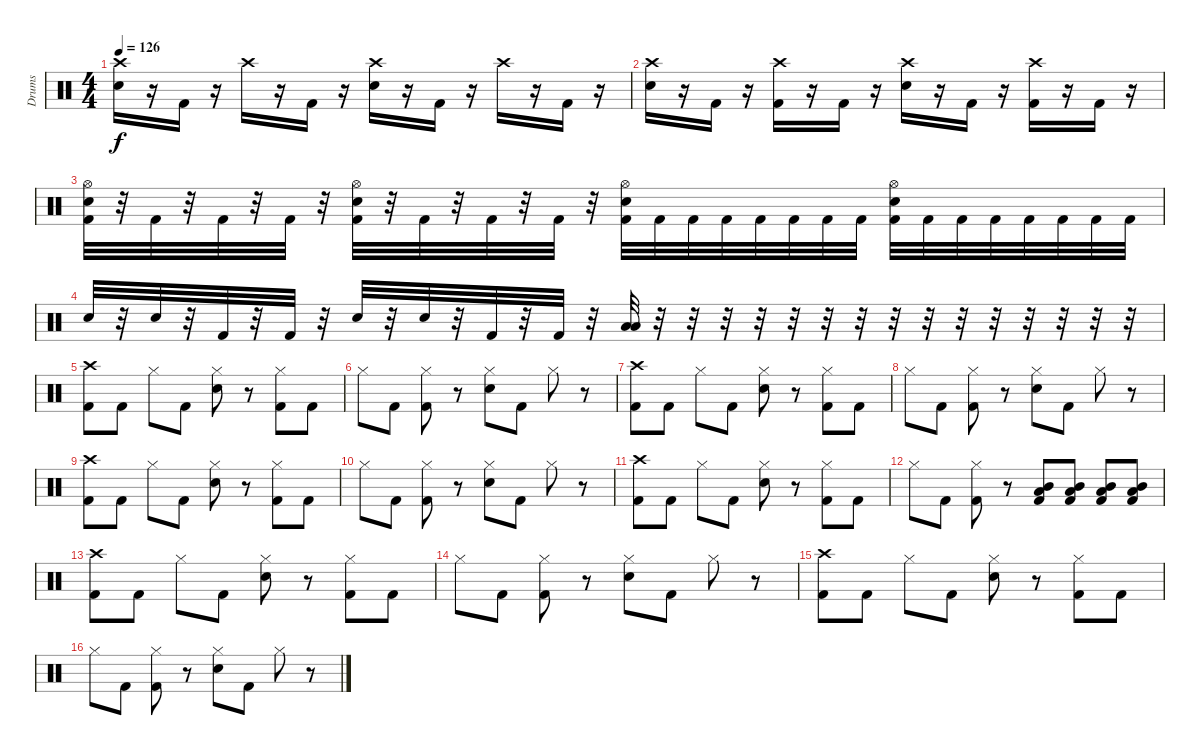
\track ("Drums" "Drums") {instrument percussion}
\staff {score}
\articulation defaults
\ts (4 4)
\tempo 126
\clef neutral
\ks c
("Crash high (hit)" "Electric Snare (hit)").16{dy f} r.16 "Kick (hit) 2".16 r.16 "Crash high (hit)".16 r.16 "Kick (hit) 2".16 r.16 ("Crash high (hit)" "Electric Snare (hit)").16 r.16 "Kick (hit) 2".16 r.16 "Crash high (hit)".16 r.16 "Kick (hit) 2".16 r.16 |
("Crash high (hit)" "Electric Snare (hit)").16 r.16 "Kick (hit) 2".16 r.16 ("Crash high (hit)" "Kick (hit) 2").16 r.16 "Kick (hit) 2".16 r.16 ("Crash high (hit)" "Electric Snare (hit)").16 r.16 "Kick (hit) 2".16 r.16 ("Crash high (hit)" "Kick (hit) 2").16 r.16 "Kick (hit) 2".16 r.16 |
("Electric Snare (hit)" "Hi-Hat (open)" "Kick (hit) 2").32 r.32 "Kick (hit) 2".32 r.32 "Kick (hit) 2".32 r.32 "Kick (hit) 2".32 r.32 ("Electric Snare (hit)" "Hi-Hat (open)" "Kick (hit) 2").32 r.32 "Kick (hit) 2".32 r.32 "Kick (hit) 2".32 r.32 "Kick (hit) 2".32 r.32 ("Electric Snare (hit)" "Hi-Hat (open)" "Kick (hit) 2").32 "Kick (hit) 2".32 "Kick (hit) 2".32 "Kick (hit) 2".32 "Kick (hit) 2".32 "Kick (hit) 2".32 "Kick (hit) 2".32 "Kick (hit) 2".32 ("Electric Snare (hit)" "Hi-Hat (open)" "Kick (hit) 2").32 "Kick (hit) 2".32 "Kick (hit) 2".32 "Kick (hit) 2".32 "Kick (hit) 2".32 "Kick (hit) 2".32 "Kick (hit) 2".32 "Kick (hit) 2".32 |
"Electric Snare (hit)".32 r.32 "Electric Snare (hit)".32 r.32 "Kick (hit) 2".32 r.32 "Kick (hit) 2".32 r.32 "Electric Snare (hit)".32 r.32 "Electric Snare (hit)".32 r.32 "Kick (hit) 2".32 r.32 "Kick (hit) 2".32 r.32 ("Low Floor Tom (hit)" "Low Tom (hit)").32 r.32 r.32 r.32 r.32 r.32 r.32 r.32 r.32 r.32 r.32 r.32 r.32 r.32 r.32 r.32 |
("Crash high (hit)" "Kick (hit) 2").8 "Kick (hit) 2".8 "Hi-Hat (closed)".8 "Kick (hit) 2".8 ("Hi-Hat (closed)" "Electric Snare (hit)").8 r.8 ("Hi-Hat (closed)" "Kick (hit) 2").8 "Kick (hit) 2".8 |
"Hi-Hat (closed)".8 "Kick (hit) 2".8 ("Hi-Hat (closed)" "Kick (hit) 2").8 r.8 ("Hi-Hat (closed)" "Electric Snare (hit)").8 "Kick (hit) 2".8 "Hi-Hat (closed)".8 r.8 |
("Crash high (hit)" "Kick (hit) 2").8 "Kick (hit) 2".8 "Hi-Hat (closed)".8 "Kick (hit) 2".8 ("Hi-Hat (closed)" "Electric Snare (hit)").8 r.8 ("Hi-Hat (closed)" "Kick (hit) 2").8 "Kick (hit) 2".8 |
"Hi-Hat (closed)".8 "Kick (hit) 2".8 ("Hi-Hat (closed)" "Kick (hit) 2").8 r.8 ("Hi-Hat (closed)" "Electric Snare (hit)").8 "Kick (hit) 2".8 "Hi-Hat (closed)".8 r.8 |
("Crash high (hit)" "Kick (hit) 2").8 "Kick (hit) 2".8 "Hi-Hat (closed)".8 "Kick (hit) 2".8 ("Hi-Hat (closed)" "Electric Snare (hit)").8 r.8 ("Hi-Hat (closed)" "Kick (hit) 2").8 "Kick (hit) 2".8 |
"Hi-Hat (closed)".8 "Kick (hit) 2".8 ("Hi-Hat (closed)" "Kick (hit) 2").8 r.8 ("Hi-Hat (closed)" "Electric Snare (hit)").8 "Kick (hit) 2".8 "Hi-Hat (closed)".8 r.8 |
("Crash high (hit)" "Kick (hit) 2").8 "Kick (hit) 2".8 "Hi-Hat (closed)".8 "Kick (hit) 2".8 ("Hi-Hat (closed)" "Electric Snare (hit)").8 r.8 ("Hi-Hat (closed)" "Kick (hit) 2").8 "Kick (hit) 2".8 |
"Hi-Hat (closed)".8 "Kick (hit) 2".8 ("Hi-Hat (closed)" "Kick (hit) 2").8 r.8 ("Low Floor Tom (hit)" "Mid Tom (hit)" "Kick (hit) 2").8 ("Low Floor Tom (hit)" "Mid Tom (hit)" "Kick (hit) 2").8 ("Low Floor Tom (hit)" "Mid Tom (hit)" "Kick (hit) 2").8 ("Low Floor Tom (hit)" "Mid Tom (hit)" "Kick (hit) 2").8 |
("Crash high (hit)" "Kick (hit) 2").8 "Kick (hit) 2".8 "Hi-Hat (closed)".8 "Kick (hit) 2".8 ("Hi-Hat (closed)" "Electric Snare (hit)").8 r.8 ("Hi-Hat (closed)" "Kick (hit) 2").8 "Kick (hit) 2".8 |
"Hi-Hat (closed)".8 "Kick (hit) 2".8 ("Hi-Hat (closed)" "Kick (hit) 2").8 r.8 ("Hi-Hat (closed)" "Electric Snare (hit)").8 "Kick (hit) 2".8 "Hi-Hat (closed)".8 r.8 |
("Crash high (hit)" "Kick (hit) 2").8 "Kick (hit) 2".8 "Hi-Hat (closed)".8 "Kick (hit) 2".8 ("Hi-Hat (closed)" "Electric Snare (hit)").8 r.8 ("Hi-Hat (closed)" "Kick (hit) 2").8 "Kick (hit) 2".8 |
"Hi-Hat (closed)".8 "Kick (hit) 2".8 ("Hi-Hat (closed)" "Kick (hit) 2").8 r.8 ("Hi-Hat (closed)" "Electric Snare (hit)").8 "Kick (hit) 2".8 "Hi-Hat (closed)".8 r.8
